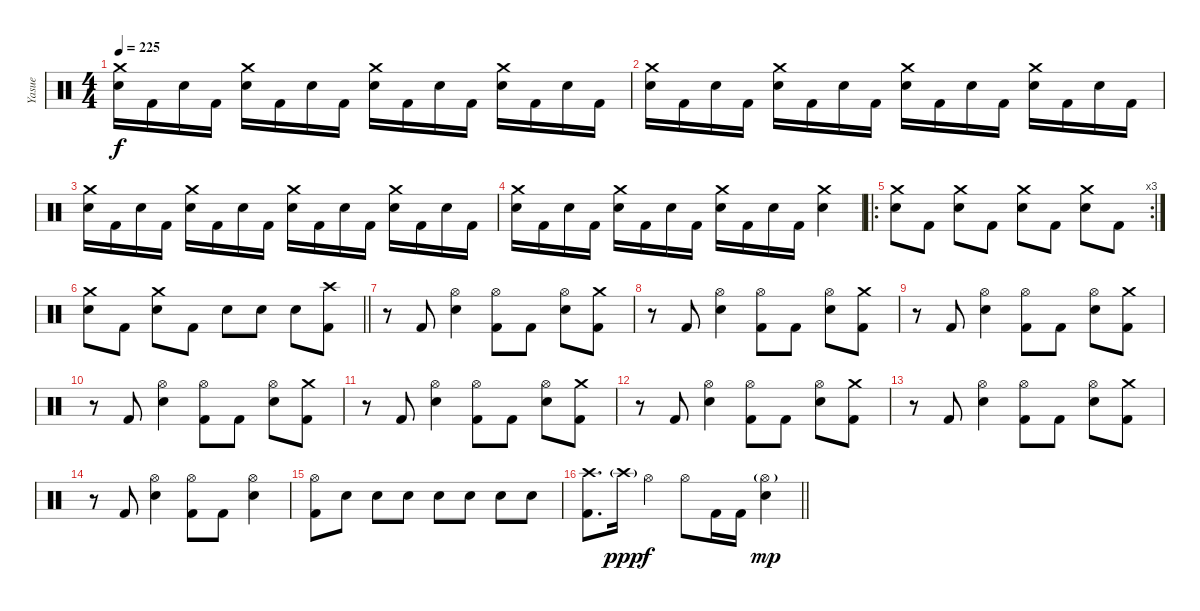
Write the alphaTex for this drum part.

\track ("Yasue" "Yasue") {instrument percussion}
\staff {score}
\articulation defaults
\ts (4 4)
\section ("" "")
\tempo 225
\clef neutral
\ks c
("Crash medium (hit)" "Electric Snare (hit)").16{dy f} "Kick (hit) 2".16 "Electric Snare (hit)".16 "Kick (hit) 2".16 ("Crash medium (hit)" "Electric Snare (hit)").16 "Kick (hit) 2".16 "Electric Snare (hit)".16 "Kick (hit) 2".16 ("Crash medium (hit)" "Electric Snare (hit)").16 "Kick (hit) 2".16 "Electric Snare (hit)".16 "Kick (hit) 2".16 ("Crash medium (hit)" "Electric Snare (hit)").16 "Kick (hit) 2".16 "Electric Snare (hit)".16 "Kick (hit) 2".16 |
("Crash medium (hit)" "Electric Snare (hit)").16 "Kick (hit) 2".16 "Electric Snare (hit)".16 "Kick (hit) 2".16 ("Crash medium (hit)" "Electric Snare (hit)").16 "Kick (hit) 2".16 "Electric Snare (hit)".16 "Kick (hit) 2".16 ("Crash medium (hit)" "Electric Snare (hit)").16 "Kick (hit) 2".16 "Electric Snare (hit)".16 "Kick (hit) 2".16 ("Crash medium (hit)" "Electric Snare (hit)").16 "Kick (hit) 2".16 "Electric Snare (hit)".16 "Kick (hit) 2".16 |
("Crash medium (hit)" "Electric Snare (hit)").16 "Kick (hit) 2".16 "Electric Snare (hit)".16 "Kick (hit) 2".16 ("Crash medium (hit)" "Electric Snare (hit)").16 "Kick (hit) 2".16 "Electric Snare (hit)".16 "Kick (hit) 2".16 ("Crash medium (hit)" "Electric Snare (hit)").16 "Kick (hit) 2".16 "Electric Snare (hit)".16 "Kick (hit) 2".16 ("Crash medium (hit)" "Electric Snare (hit)").16 "Kick (hit) 2".16 "Electric Snare (hit)".16 "Kick (hit) 2".16 |
("Crash medium (hit)" "Electric Snare (hit)").16 "Kick (hit) 2".16 "Electric Snare (hit)".16 "Kick (hit) 2".16 ("Crash medium (hit)" "Electric Snare (hit)").16 "Kick (hit) 2".16 "Electric Snare (hit)".16 "Kick (hit) 2".16 ("Crash medium (hit)" "Electric Snare (hit)").16 "Kick (hit) 2".16 "Electric Snare (hit)".16 "Kick (hit) 2".16 ("Crash medium (hit)" "Electric Snare (hit)").4 |
\ro
\rc 3
("Crash medium (hit)" "Electric Snare (hit)").8 "Kick (hit) 2".8 ("Crash medium (hit)" "Electric Snare (hit)").8 "Kick (hit) 2".8 ("Crash medium (hit)" "Electric Snare (hit)").8 "Kick (hit) 2".8 ("Crash medium (hit)" "Electric Snare (hit)").8 "Kick (hit) 2".8 |
\barLineRight lightlight
("Crash medium (hit)" "Electric Snare (hit)").8 "Kick (hit) 2".8 ("Crash medium (hit)" "Electric Snare (hit)").8 "Kick (hit) 2".8 "Electric Snare (hit)".8 "Electric Snare (hit)".8 "Electric Snare (hit)".8 ("Crash high (hit)" "Kick (hit) 2").8 |
\section ("" "")
r.8 "Kick (hit) 2".8 ("Hi-Hat (open)" "Electric Snare (hit)").4 ("Hi-Hat (open)" "Kick (hit) 2").8 "Kick (hit) 2".8 ("Hi-Hat (open)" "Electric Snare (hit)").8 ("Crash medium (hit)" "Kick (hit) 2").8 |
r.8 "Kick (hit) 2".8 ("Hi-Hat (open)" "Electric Snare (hit)").4 ("Hi-Hat (open)" "Kick (hit) 2").8 "Kick (hit) 2".8 ("Hi-Hat (open)" "Electric Snare (hit)").8 ("Crash medium (hit)" "Kick (hit) 2").8 |
r.8 "Kick (hit) 2".8 ("Hi-Hat (open)" "Electric Snare (hit)").4 ("Hi-Hat (open)" "Kick (hit) 2").8 "Kick (hit) 2".8 ("Hi-Hat (open)" "Electric Snare (hit)").8 ("Crash medium (hit)" "Kick (hit) 2").8 |
r.8 "Kick (hit) 2".8 ("Hi-Hat (open)" "Electric Snare (hit)").4 ("Hi-Hat (open)" "Kick (hit) 2").8 "Kick (hit) 2".8 ("Hi-Hat (open)" "Electric Snare (hit)").8 ("Crash medium (hit)" "Kick (hit) 2").8 |
r.8 "Kick (hit) 2".8 ("Hi-Hat (open)" "Electric Snare (hit)").4 ("Hi-Hat (open)" "Kick (hit) 2").8 "Kick (hit) 2".8 ("Hi-Hat (open)" "Electric Snare (hit)").8 ("Crash medium (hit)" "Kick (hit) 2").8 |
r.8 "Kick (hit) 2".8 ("Hi-Hat (open)" "Electric Snare (hit)").4 ("Hi-Hat (open)" "Kick (hit) 2").8 "Kick (hit) 2".8 ("Hi-Hat (open)" "Electric Snare (hit)").8 ("Crash medium (hit)" "Kick (hit) 2").8 |
r.8 "Kick (hit) 2".8 ("Hi-Hat (open)" "Electric Snare (hit)").4 ("Hi-Hat (open)" "Kick (hit) 2").8 "Kick (hit) 2".8 ("Hi-Hat (open)" "Electric Snare (hit)").8 ("Crash medium (hit)" "Kick (hit) 2").8 |
r.8 "Kick (hit) 2".8 ("Hi-Hat (open)" "Electric Snare (hit)").4 ("Hi-Hat (open)" "Kick (hit) 2").8 "Kick (hit) 2".8 ("Hi-Hat (open)" "Electric Snare (hit)").4 |
("Hi-Hat (open)" "Kick (hit) 2").8 "Electric Snare (hit)".8 "Electric Snare (hit)".8 "Electric Snare (hit)".8 "Electric Snare (hit)".8 "Electric Snare (hit)".8 "Electric Snare (hit)".8 "Electric Snare (hit)".8 |
\barLineRight lightlight
("Crash high (hit)" "Kick (hit) 2").8{d} "Crash high (hit)"{g}.16{dy ppp} "Hi-Hat (open)".4{dy f} "Hi-Hat (open)".8 "Kick (hit) 2".16 "Kick (hit) 2".16 ("Hi-Hat (open)"{g} "Electric Snare (hit)").4{dy mp}
